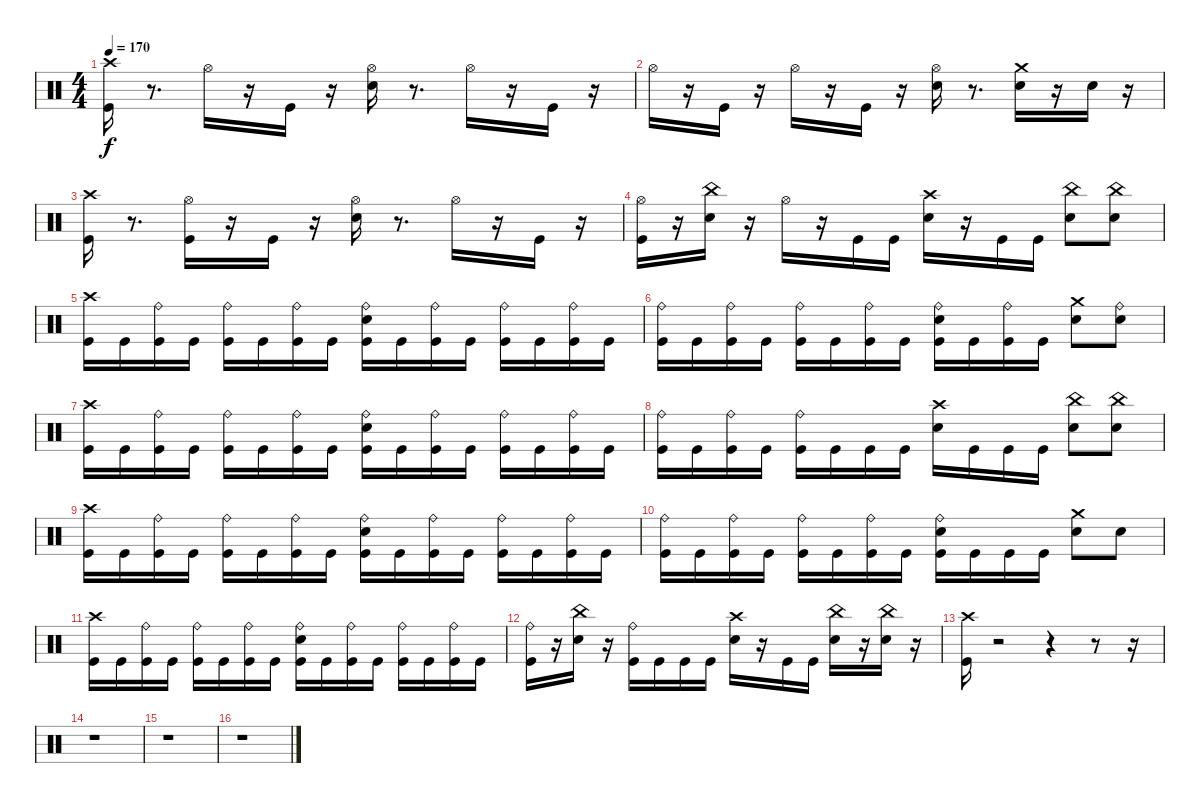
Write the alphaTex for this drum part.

\track "" {instrument percussion}
\staff {score}
\articulation defaults
\ts (4 4)
\tempo 170
\clef neutral
\ks c
("Crash high (hit)" "Kick (hit)").16{dy f} r.8{d} "Hi-Hat (open)".16 r.16 "Kick (hit)".16 r.16 ("Snare (hit) 2" "Hi-Hat (open)").16 r.8{d} "Hi-Hat (open)".16 r.16 "Kick (hit)".16 r.16 |
"Hi-Hat (open)".16 r.16 "Kick (hit)".16 r.16 "Hi-Hat (open)".16 r.16 "Kick (hit)".16 r.16 ("Hi-Hat (open)" "Snare (hit) 2").16 r.8{d} ("Snare (hit) 2" "Crash medium (hit)").16 r.16 "Snare (hit) 2".16 r.16 |
("Kick (hit)" "Crash high (hit)").16 r.8{d} ("Hi-Hat (open)" "Kick (hit)").16 r.16 "Kick (hit)".16 r.16 ("Hi-Hat (open)" "Snare (hit) 2").16 r.8{d} "Hi-Hat (open)".16 r.16 "Kick (hit)".16 r.16 |
("Kick (hit)" "Hi-Hat (open)").16 r.16 ("Snare (hit) 2" "China (hit)").16 r.16 "Hi-Hat (open)".16 r.16 "Kick (hit)".16 "Kick (hit)".16 ("Snare (hit) 2" "Crash high (hit)").16 r.16 "Kick (hit)".16 "Kick (hit)".16 ("China (hit)" "Snare (hit) 2").8 ("China (hit)" "Snare (hit) 2").8 |
("Crash high (hit)" "Kick (hit)").16 "Kick (hit)".16 ("Kick (hit)" "Ride (bell)").16 "Kick (hit)".16 ("Kick (hit)" "Ride (bell)").16 "Kick (hit)".16 ("Kick (hit)" "Ride (bell)").16 "Kick (hit)".16 ("Kick (hit)" "Snare (hit) 2" "Ride (bell)").16 "Kick (hit)".16 ("Kick (hit)" "Ride (bell)").16 "Kick (hit)".16 ("Kick (hit)" "Ride (bell)").16 "Kick (hit)".16 ("Ride (bell)" "Kick (hit)").16 "Kick (hit)".16 |
("Kick (hit)" "Ride (bell)").16 "Kick (hit)".16 ("Ride (bell)" "Kick (hit)").16 "Kick (hit)".16 ("Kick (hit)" "Ride (bell)").16 "Kick (hit)".16 ("Ride (bell)" "Kick (hit)").16 "Kick (hit)".16 ("Kick (hit)" "Ride (bell)" "Snare (hit) 2").16 "Kick (hit)".16 ("Kick (hit)" "Ride (bell)").16 "Kick (hit)".16 ("Snare (hit) 2" "Crash medium (hit)").8 ("Ride (bell)" "Snare (hit) 2").8 |
("Kick (hit)" "Crash high (hit)").16 "Kick (hit)".16 ("Ride (bell)" "Kick (hit)").16 "Kick (hit)".16 ("Ride (bell)" "Kick (hit)").16 "Kick (hit)".16 ("Ride (bell)" "Kick (hit)").16 "Kick (hit)".16 ("Kick (hit)" "Ride (bell)" "Snare (hit) 2").16 "Kick (hit)".16 ("Kick (hit)" "Ride (bell)").16 "Kick (hit)".16 ("Kick (hit)" "Ride (bell)").16 "Kick (hit)".16 ("Ride (bell)" "Kick (hit)").16 "Kick (hit)".16 |
("Kick (hit)" "Ride (bell)").16 "Kick (hit)".16 ("Ride (bell)" "Kick (hit)").16 "Kick (hit)".16 ("Kick (hit)" "Ride (bell)").16 "Kick (hit)".16 "Kick (hit)".16 "Kick (hit)".16 ("Crash high (hit)" "Snare (hit) 2").16 "Kick (hit)".16 "Kick (hit)".16 "Kick (hit)".16 ("China (hit)" "Snare (hit) 2").8 ("China (hit)" "Snare (hit) 2").8 |
("Crash high (hit)" "Kick (hit)").16 "Kick (hit)".16 ("Kick (hit)" "Ride (bell)").16 "Kick (hit)".16 ("Kick (hit)" "Ride (bell)").16 "Kick (hit)".16 ("Kick (hit)" "Ride (bell)").16 "Kick (hit)".16 ("Kick (hit)" "Snare (hit) 2" "Ride (bell)").16 "Kick (hit)".16 ("Kick (hit)" "Ride (bell)").16 "Kick (hit)".16 ("Kick (hit)" "Ride (bell)").16 "Kick (hit)".16 ("Ride (bell)" "Kick (hit)").16 "Kick (hit)".16 |
("Kick (hit)" "Ride (bell)").16 "Kick (hit)".16 ("Ride (bell)" "Kick (hit)").16 "Kick (hit)".16 ("Kick (hit)" "Ride (bell)").16 "Kick (hit)".16 ("Ride (bell)" "Kick (hit)").16 "Kick (hit)".16 ("Kick (hit)" "Ride (bell)" "Snare (hit) 2").16 "Kick (hit)".16 "Kick (hit)".16 "Kick (hit)".16 ("Snare (hit) 2" "Crash medium (hit)").8 "Snare (hit) 2".8 |
("Kick (hit)" "Crash high (hit)").16 "Kick (hit)".16 ("Kick (hit)" "Ride (bell)").16 "Kick (hit)".16 ("Ride (bell)" "Kick (hit)").16 "Kick (hit)".16 ("Ride (bell)" "Kick (hit)").16 "Kick (hit)".16 ("Kick (hit)" "Ride (bell)" "Snare (hit) 2").16 "Kick (hit)".16 ("Kick (hit)" "Ride (bell)").16 "Kick (hit)".16 ("Kick (hit)" "Ride (bell)").16 "Kick (hit)".16 ("Ride (bell)" "Kick (hit)").16 "Kick (hit)".16 |
("Kick (hit)" "Ride (bell)").16 r.16 ("Snare (hit) 2" "China (hit)").16 r.16 ("Kick (hit)" "Ride (bell)").16 "Kick (hit)".16 "Kick (hit)".16 "Kick (hit)".16 ("Snare (hit) 2" "Crash high (hit)").16 r.16 "Kick (hit)".16 "Kick (hit)".16 ("China (hit)" "Snare (hit) 2").16 r.16 ("China (hit)" "Snare (hit) 2").16 r.16 |
("Crash high (hit)" "Kick (hit)").16 r.2 r.4 r.8 r.16 |
r.1 |
r.1 |
r.1
